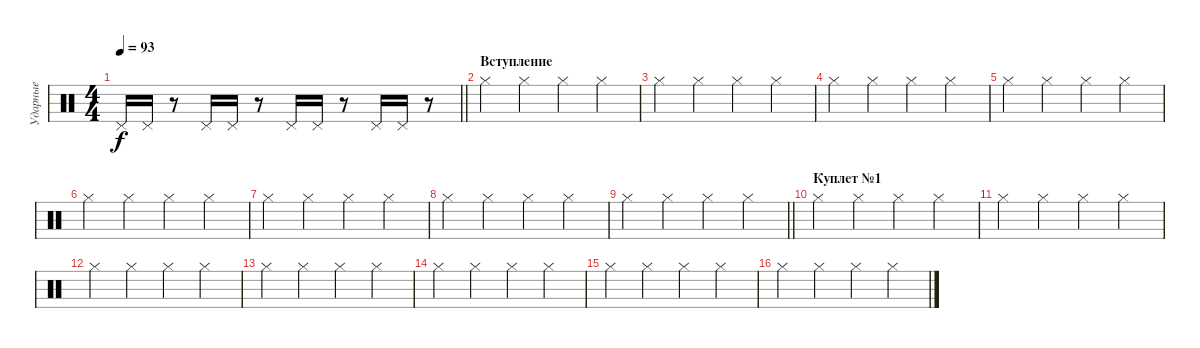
\track ("Ударные" "Ударные") {instrument percussion}
\staff {score}
\articulation defaults
\ts (4 4)
\tempo 93
\clef neutral
\barLineRight lightlight
\ks c "Pedal Hi-Hat (hit)".16{dy f} "Pedal Hi-Hat (hit)".16
r.8 "Pedal Hi-Hat (hit)".16 "Pedal Hi-Hat (hit)".16 r.8 "Pedal Hi-Hat (hit)".16 "Pedal Hi-Hat (hit)".16 r.8 "Pedal Hi-Hat (hit)".16 "Pedal Hi-Hat (hit)".16 r.8 |
\section ("" "Вступление")
"Hi-Hat (closed)".4 "Hi-Hat (closed)".4 "Hi-Hat (closed)".4 "Hi-Hat (closed)".4 |
"Hi-Hat (closed)".4 "Hi-Hat (closed)".4 "Hi-Hat (closed)".4 "Hi-Hat (closed)".4 |
"Hi-Hat (closed)".4 "Hi-Hat (closed)".4 "Hi-Hat (closed)".4 "Hi-Hat (closed)".4 |
"Hi-Hat (closed)".4 "Hi-Hat (closed)".4 "Hi-Hat (closed)".4 "Hi-Hat (closed)".4 |
"Hi-Hat (closed)".4 "Hi-Hat (closed)".4 "Hi-Hat (closed)".4 "Hi-Hat (closed)".4 |
"Hi-Hat (closed)".4 "Hi-Hat (closed)".4 "Hi-Hat (closed)".4 "Hi-Hat (closed)".4 |
"Hi-Hat (closed)".4 "Hi-Hat (closed)".4 "Hi-Hat (closed)".4 "Hi-Hat (closed)".4 |
\barLineRight lightlight "Hi-Hat (closed)".4 "Hi-Hat (closed)".4 "Hi-Hat (closed)".4 "Hi-Hat (closed)".4
|
\section ("" "Куплет №1")
"Hi-Hat (closed)".4 "Hi-Hat (closed)".4 "Hi-Hat (closed)".4 "Hi-Hat (closed)".4 |
"Hi-Hat (closed)".4 "Hi-Hat (closed)".4 "Hi-Hat (closed)".4 "Hi-Hat (closed)".4 |
"Hi-Hat (closed)".4 "Hi-Hat (closed)".4 "Hi-Hat (closed)".4 "Hi-Hat (closed)".4 |
"Hi-Hat (closed)".4 "Hi-Hat (closed)".4 "Hi-Hat (closed)".4 "Hi-Hat (closed)".4 |
"Hi-Hat (closed)".4 "Hi-Hat (closed)".4 "Hi-Hat (closed)".4 "Hi-Hat (closed)".4 |
"Hi-Hat (closed)".4 "Hi-Hat (closed)".4 "Hi-Hat (closed)".4 "Hi-Hat (closed)".4 |
"Hi-Hat (closed)".4 "Hi-Hat (closed)".4 "Hi-Hat (closed)".4 "Hi-Hat (closed)".4
